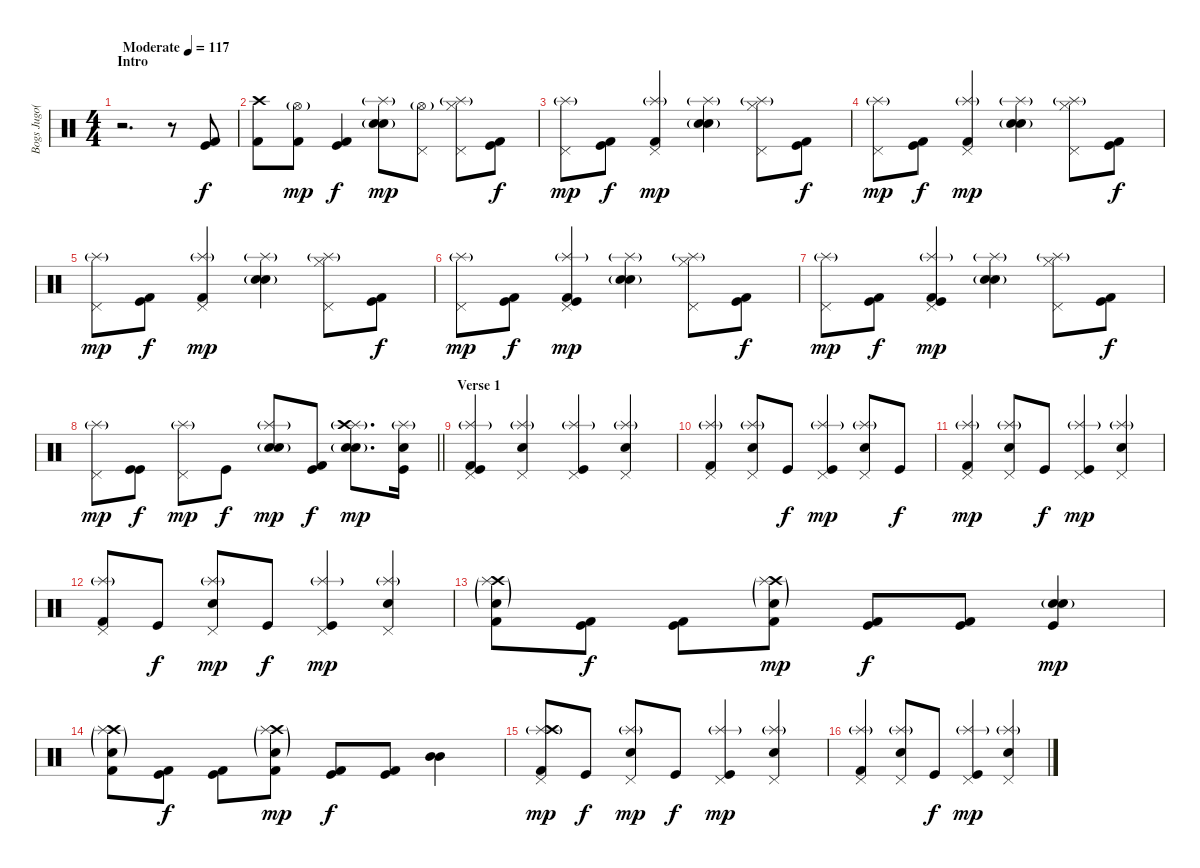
\track ("Bogs Jugo(Drums)" "Bogs Jugo(") {instrument percussion}
\staff {score}
\articulation defaults
\ts (4 4)
\section ("" "Intro")
\tempo (117 "Moderate")
\clef neutral
\ks c
r.2{d dy f} r.8 ("Kick (hit) 2" "Kick (hit)").8 |
("Crash high (hit)" "Kick (hit) 2").8 ("Kick (hit) 2" "Hi-Hat (open)"{g}).8{dy mp} ("Kick (hit) 2" "Kick (hit)").4{dy f} ("Electric Snare (hit)" "Splash (hit)"{g} "Snare (hit) 2"{g}).8{dy mp} ("Pedal Hi-Hat (hit)" "Hi-Hat (open)"{g}).8 ("Pedal Hi-Hat (hit)" "Hi-Hat (closed)" "Splash (hit)"{g}).8 ("Kick (hit) 2" "Kick (hit)").8{dy f} |
("Pedal Hi-Hat (hit)" "Splash (hit)"{g}).8{dy mp} ("Kick (hit) 2" "Kick (hit)").8{dy f} ("Pedal Hi-Hat (hit)" "Splash (hit)"{g} "Kick (hit) 2").4{dy mp} ("Electric Snare (hit)" "Splash (hit)"{g} "Snare (hit) 2"{g}).4 ("Pedal Hi-Hat (hit)" "Hi-Hat (closed)" "Splash (hit)"{g}).8 ("Kick (hit) 2" "Kick (hit)").8{dy f} |
("Pedal Hi-Hat (hit)" "Splash (hit)"{g}).8{dy mp} ("Kick (hit) 2" "Kick (hit)").8{dy f} ("Pedal Hi-Hat (hit)" "Splash (hit)"{g} "Kick (hit) 2").4{dy mp} ("Electric Snare (hit)" "Splash (hit)"{g} "Snare (hit) 2"{g}).4 ("Pedal Hi-Hat (hit)" "Hi-Hat (closed)" "Splash (hit)"{g}).8 ("Kick (hit) 2" "Kick (hit)").8{dy f} |
("Pedal Hi-Hat (hit)" "Splash (hit)"{g}).8{dy mp} ("Kick (hit) 2" "Kick (hit)").8{dy f} ("Pedal Hi-Hat (hit)" "Splash (hit)"{g} "Kick (hit) 2").4{dy mp} ("Electric Snare (hit)" "Splash (hit)"{g} "Snare (hit) 2"{g}).4 ("Pedal Hi-Hat (hit)" "Hi-Hat (closed)" "Splash (hit)"{g}).8 ("Kick (hit) 2" "Kick (hit)").8{dy f} |
("Pedal Hi-Hat (hit)" "Splash (hit)"{g}).8{dy mp} ("Kick (hit) 2" "Kick (hit)").8{dy f} ("Pedal Hi-Hat (hit)" "Splash (hit)"{g} "Kick (hit) 2" "Kick (hit)").4{dy mp} ("Electric Snare (hit)" "Splash (hit)"{g} "Snare (hit) 2"{g}).4 ("Pedal Hi-Hat (hit)" "Hi-Hat (closed)" "Splash (hit)"{g}).8 ("Kick (hit) 2" "Kick (hit)").8{dy f} |
("Pedal Hi-Hat (hit)" "Splash (hit)"{g}).8{dy mp} ("Kick (hit) 2" "Kick (hit)").8{dy f} ("Pedal Hi-Hat (hit)" "Splash (hit)"{g} "Kick (hit) 2" "Kick (hit)").4{dy mp} ("Electric Snare (hit)" "Splash (hit)"{g} "Snare (hit) 2"{g}).4 ("Pedal Hi-Hat (hit)" "Hi-Hat (closed)" "Splash (hit)"{g}).8 ("Kick (hit) 2" "Kick (hit)").8{dy f} |
\barLineRight lightlight
("Pedal Hi-Hat (hit)" "Splash (hit)"{g}).8{dy mp} ("Kick (hit)" "Kick (hit)").8{dy f} ("Pedal Hi-Hat (hit)" "Splash (hit)"{g}).8{dy mp} "Kick (hit)".8{dy f} ("Electric Snare (hit)" "Splash (hit)"{g} "Snare (hit) 2"{g}).8{dy mp} ("Kick (hit) 2" "Kick (hit)").8{dy f} ("Electric Snare (hit)" "Splash (hit)"{g} "Snare (hit) 2"{g} "Crash high (hit)"{g}).8{d dy mp} ("Electric Snare (hit)" "Kick (hit)" "Splash (hit)"{g}).16 |
\section ("" "Verse 1")
("Kick (hit) 2" "Splash (hit)"{g} "Pedal Hi-Hat (hit)" "Kick (hit)").4 ("Electric Snare (hit)" "Splash (hit)"{g} "Pedal Hi-Hat (hit)").4 ("Kick (hit)" "Splash (hit)"{g} "Pedal Hi-Hat (hit)").4 ("Electric Snare (hit)" "Splash (hit)"{g} "Pedal Hi-Hat (hit)").4 |
("Kick (hit) 2" "Splash (hit)"{g} "Pedal Hi-Hat (hit)").4 ("Electric Snare (hit)" "Splash (hit)"{g} "Pedal Hi-Hat (hit)").8 "Kick (hit)".8{dy f} ("Kick (hit)" "Splash (hit)"{g} "Pedal Hi-Hat (hit)").4{dy mp} ("Electric Snare (hit)" "Splash (hit)"{g} "Pedal Hi-Hat (hit)").8 "Kick (hit)".8{dy f} |
("Kick (hit) 2" "Splash (hit)"{g} "Pedal Hi-Hat (hit)").4{dy mp} ("Electric Snare (hit)" "Splash (hit)"{g} "Pedal Hi-Hat (hit)").8 "Kick (hit)".8{dy f} ("Kick (hit)" "Splash (hit)"{g} "Pedal Hi-Hat (hit)").4{dy mp} ("Electric Snare (hit)" "Splash (hit)"{g} "Pedal Hi-Hat (hit)").4 |
("Kick (hit) 2" "Splash (hit)"{g} "Pedal Hi-Hat (hit)").8 "Kick (hit)".8{dy f} ("Electric Snare (hit)" "Splash (hit)"{g} "Pedal Hi-Hat (hit)").8{dy mp} "Kick (hit)".8{dy f} ("Kick (hit)" "Splash (hit)"{g} "Pedal Hi-Hat (hit)").4{dy mp} ("Electric Snare (hit)" "Splash (hit)"{g} "Pedal Hi-Hat (hit)").4 |
("Crash high (hit)"{g} "Kick (hit) 2" "Electric Snare (hit)"{g} "Splash (hit)"{g}).8 ("Kick (hit) 2" "Kick (hit)").8{dy f} ("Kick (hit) 2" "Kick (hit)").8 ("Crash high (hit)"{g} "Kick (hit) 2" "Electric Snare (hit)"{g} "Splash (hit)"{g}).8{dy mp} ("Kick (hit) 2" "Kick (hit)").8{dy f} ("Kick (hit) 2" "Kick (hit)").8 ("Electric Snare (hit)" "Kick (hit)" "Snare (hit) 2"{g}).4{dy mp} |
("Crash high (hit)"{g} "Kick (hit) 2" "Electric Snare (hit)"{g} "Splash (hit)"{g}).8 ("Kick (hit) 2" "Kick (hit)").8{dy f} ("Kick (hit) 2" "Kick (hit)").8 ("Crash high (hit)"{g} "Kick (hit) 2" "Electric Snare (hit)"{g} "Splash (hit)"{g}).8{dy mp} ("Kick (hit) 2" "Kick (hit)").8{dy f} ("Kick (hit) 2" "Kick (hit)").8 ("Mid Tom (hit)" "Mid Tom (hit)").4 |
("Kick (hit) 2" "Splash (hit)"{g} "Pedal Hi-Hat (hit)" "Crash high (hit)"{g}).8{dy mp} "Kick (hit)".8{dy f} ("Electric Snare (hit)" "Splash (hit)"{g} "Pedal Hi-Hat (hit)").8{dy mp} "Kick (hit)".8{dy f} ("Kick (hit)" "Splash (hit)"{g} "Pedal Hi-Hat (hit)").4{dy mp} ("Electric Snare (hit)" "Splash (hit)"{g} "Pedal Hi-Hat (hit)").4 |
("Kick (hit) 2" "Splash (hit)"{g} "Pedal Hi-Hat (hit)").4 ("Electric Snare (hit)" "Splash (hit)"{g} "Pedal Hi-Hat (hit)").8 "Kick (hit)".8{dy f} ("Kick (hit)" "Splash (hit)"{g} "Pedal Hi-Hat (hit)").4{dy mp} ("Electric Snare (hit)" "Splash (hit)"{g} "Pedal Hi-Hat (hit)").4
